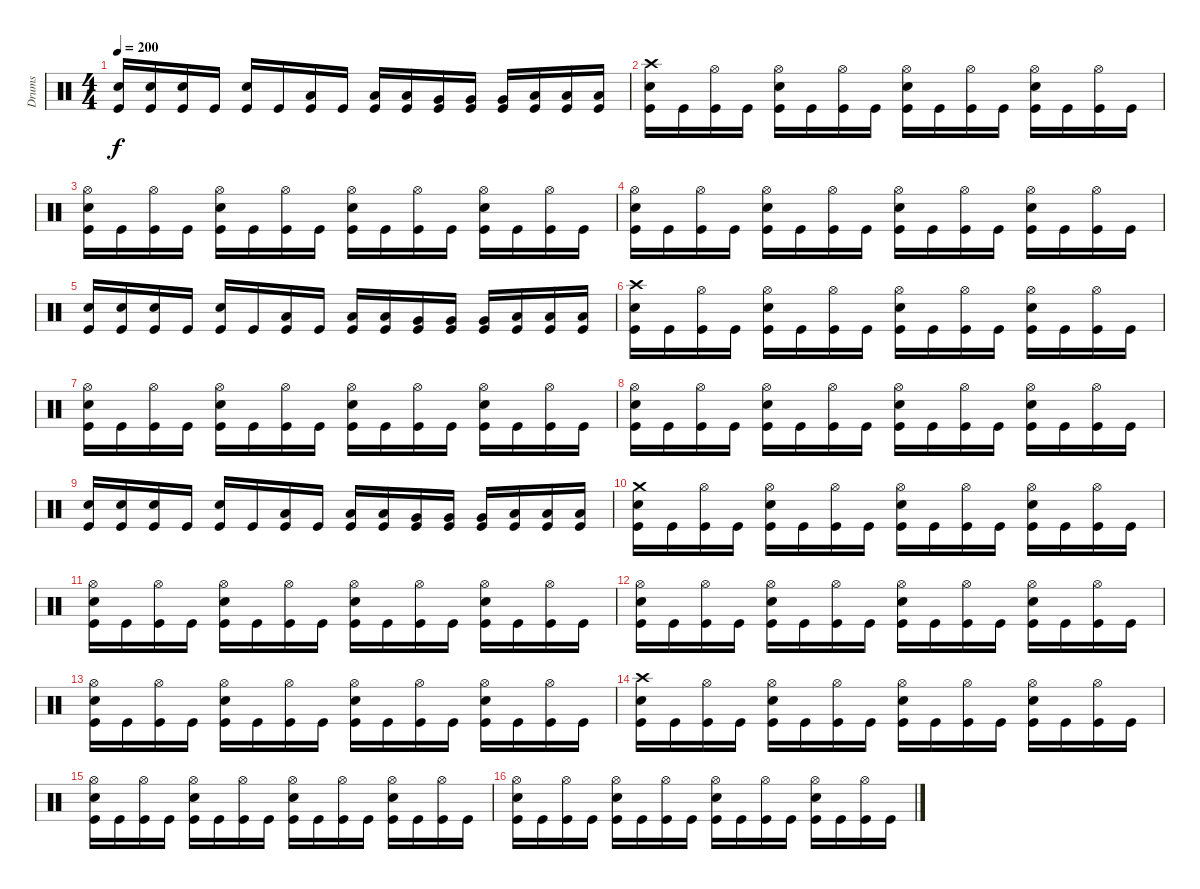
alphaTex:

\track ("Drums" "Drums") {instrument percussion}
\staff {score}
\articulation defaults
\ts (4 4)
\tempo 200
\clef neutral
\ks c
("Electric Snare (hit)" "Kick (hit)").16{dy f} ("Electric Snare (hit)" "Kick (hit)").16 ("Electric Snare (hit)" "Kick (hit)").16 "Kick (hit)".16 ("Electric Snare (hit)" "Kick (hit)").16 "Kick (hit)".16 ("Low Tom (hit)" "Kick (hit)").16 "Kick (hit)".16 ("Low Tom (hit)" "Kick (hit)").16 ("Low Tom (hit)" "Kick (hit)").16 ("Very Low Tom (hit)" "Kick (hit)").16 ("Very Low Tom (hit)" "Kick (hit)").16 ("Very Low Tom (hit)" "Kick (hit)").16 ("Low Floor Tom (hit)" "Kick (hit)").16 ("Low Floor Tom (hit)" "Kick (hit)").16 ("Low Floor Tom (hit)" "Kick (hit)").16 |
("Crash high (hit)" "Electric Snare (hit)" "Kick (hit)").16 "Kick (hit)".16 ("Hi-Hat (open)" "Kick (hit)").16 "Kick (hit)".16 ("Hi-Hat (open)" "Electric Snare (hit)" "Kick (hit)").16 "Kick (hit)".16 ("Hi-Hat (open)" "Kick (hit)").16 "Kick (hit)".16 ("Hi-Hat (open)" "Electric Snare (hit)" "Kick (hit)").16 "Kick (hit)".16 ("Hi-Hat (open)" "Kick (hit)").16 "Kick (hit)".16 ("Hi-Hat (open)" "Electric Snare (hit)" "Kick (hit)").16 "Kick (hit)".16 ("Hi-Hat (open)" "Kick (hit)").16 "Kick (hit)".16 |
("Hi-Hat (open)" "Electric Snare (hit)" "Kick (hit)").16 "Kick (hit)".16 ("Hi-Hat (open)" "Kick (hit)").16 "Kick (hit)".16 ("Hi-Hat (open)" "Electric Snare (hit)" "Kick (hit)").16 "Kick (hit)".16 ("Hi-Hat (open)" "Kick (hit)").16 "Kick (hit)".16 ("Hi-Hat (open)" "Electric Snare (hit)" "Kick (hit)").16 "Kick (hit)".16 ("Hi-Hat (open)" "Kick (hit)").16 "Kick (hit)".16 ("Hi-Hat (open)" "Electric Snare (hit)" "Kick (hit)").16 "Kick (hit)".16 ("Hi-Hat (open)" "Kick (hit)").16 "Kick (hit)".16 |
("Hi-Hat (open)" "Electric Snare (hit)" "Kick (hit)").16 "Kick (hit)".16 ("Hi-Hat (open)" "Kick (hit)").16 "Kick (hit)".16 ("Hi-Hat (open)" "Electric Snare (hit)" "Kick (hit)").16 "Kick (hit)".16 ("Hi-Hat (open)" "Kick (hit)").16 "Kick (hit)".16 ("Hi-Hat (open)" "Electric Snare (hit)" "Kick (hit)").16 "Kick (hit)".16 ("Hi-Hat (open)" "Kick (hit)").16 "Kick (hit)".16 ("Hi-Hat (open)" "Electric Snare (hit)" "Kick (hit)").16 "Kick (hit)".16 ("Hi-Hat (open)" "Kick (hit)").16 "Kick (hit)".16 |
("Electric Snare (hit)" "Kick (hit)").16 ("Electric Snare (hit)" "Kick (hit)").16 ("Electric Snare (hit)" "Kick (hit)").16 "Kick (hit)".16 ("Electric Snare (hit)" "Kick (hit)").16 "Kick (hit)".16 ("Low Tom (hit)" "Kick (hit)").16 "Kick (hit)".16 ("Low Tom (hit)" "Kick (hit)").16 ("Low Tom (hit)" "Kick (hit)").16 ("Very Low Tom (hit)" "Kick (hit)").16 ("Very Low Tom (hit)" "Kick (hit)").16 ("Very Low Tom (hit)" "Kick (hit)").16 ("Low Floor Tom (hit)" "Kick (hit)").16 ("Low Floor Tom (hit)" "Kick (hit)").16 ("Low Floor Tom (hit)" "Kick (hit)").16 |
("Crash high (hit)" "Electric Snare (hit)" "Kick (hit)").16 "Kick (hit)".16 ("Hi-Hat (open)" "Kick (hit)").16 "Kick (hit)".16 ("Hi-Hat (open)" "Electric Snare (hit)" "Kick (hit)").16 "Kick (hit)".16 ("Hi-Hat (open)" "Kick (hit)").16 "Kick (hit)".16 ("Hi-Hat (open)" "Electric Snare (hit)" "Kick (hit)").16 "Kick (hit)".16 ("Hi-Hat (open)" "Kick (hit)").16 "Kick (hit)".16 ("Hi-Hat (open)" "Electric Snare (hit)" "Kick (hit)").16 "Kick (hit)".16 ("Hi-Hat (open)" "Kick (hit)").16 "Kick (hit)".16 |
("Hi-Hat (open)" "Electric Snare (hit)" "Kick (hit)").16 "Kick (hit)".16 ("Hi-Hat (open)" "Kick (hit)").16 "Kick (hit)".16 ("Hi-Hat (open)" "Electric Snare (hit)" "Kick (hit)").16 "Kick (hit)".16 ("Hi-Hat (open)" "Kick (hit)").16 "Kick (hit)".16 ("Hi-Hat (open)" "Electric Snare (hit)" "Kick (hit)").16 "Kick (hit)".16 ("Hi-Hat (open)" "Kick (hit)").16 "Kick (hit)".16 ("Hi-Hat (open)" "Electric Snare (hit)" "Kick (hit)").16 "Kick (hit)".16 ("Hi-Hat (open)" "Kick (hit)").16 "Kick (hit)".16 |
("Hi-Hat (open)" "Electric Snare (hit)" "Kick (hit)").16 "Kick (hit)".16 ("Hi-Hat (open)" "Kick (hit)").16 "Kick (hit)".16 ("Hi-Hat (open)" "Electric Snare (hit)" "Kick (hit)").16 "Kick (hit)".16 ("Hi-Hat (open)" "Kick (hit)").16 "Kick (hit)".16 ("Hi-Hat (open)" "Electric Snare (hit)" "Kick (hit)").16 "Kick (hit)".16 ("Hi-Hat (open)" "Kick (hit)").16 "Kick (hit)".16 ("Hi-Hat (open)" "Electric Snare (hit)" "Kick (hit)").16 "Kick (hit)".16 ("Hi-Hat (open)" "Kick (hit)").16 "Kick (hit)".16 |
("Electric Snare (hit)" "Kick (hit)").16 ("Electric Snare (hit)" "Kick (hit)").16 ("Electric Snare (hit)" "Kick (hit)").16 "Kick (hit)".16 ("Electric Snare (hit)" "Kick (hit)").16 "Kick (hit)".16 ("Low Tom (hit)" "Kick (hit)").16 "Kick (hit)".16 ("Low Tom (hit)" "Kick (hit)").16 ("Low Tom (hit)" "Kick (hit)").16 ("Very Low Tom (hit)" "Kick (hit)").16 ("Very Low Tom (hit)" "Kick (hit)").16 ("Very Low Tom (hit)" "Kick (hit)").16 ("Low Floor Tom (hit)" "Kick (hit)").16 ("Low Floor Tom (hit)" "Kick (hit)").16 ("Low Floor Tom (hit)" "Kick (hit)").16 |
("Crash medium (hit)" "Electric Snare (hit)" "Kick (hit)").16 "Kick (hit)".16 ("Hi-Hat (open)" "Kick (hit)").16 "Kick (hit)".16 ("Hi-Hat (open)" "Electric Snare (hit)" "Kick (hit)").16 "Kick (hit)".16 ("Hi-Hat (open)" "Kick (hit)").16 "Kick (hit)".16 ("Hi-Hat (open)" "Electric Snare (hit)" "Kick (hit)").16 "Kick (hit)".16 ("Hi-Hat (open)" "Kick (hit)").16 "Kick (hit)".16 ("Hi-Hat (open)" "Electric Snare (hit)" "Kick (hit)").16 "Kick (hit)".16 ("Hi-Hat (open)" "Kick (hit)").16 "Kick (hit)".16 |
("Hi-Hat (open)" "Electric Snare (hit)" "Kick (hit)").16 "Kick (hit)".16 ("Hi-Hat (open)" "Kick (hit)").16 "Kick (hit)".16 ("Hi-Hat (open)" "Electric Snare (hit)" "Kick (hit)").16 "Kick (hit)".16 ("Hi-Hat (open)" "Kick (hit)").16 "Kick (hit)".16 ("Hi-Hat (open)" "Electric Snare (hit)" "Kick (hit)").16 "Kick (hit)".16 ("Hi-Hat (open)" "Kick (hit)").16 "Kick (hit)".16 ("Hi-Hat (open)" "Electric Snare (hit)" "Kick (hit)").16 "Kick (hit)".16 ("Hi-Hat (open)" "Kick (hit)").16 "Kick (hit)".16 |
("Hi-Hat (open)" "Electric Snare (hit)" "Kick (hit)").16 "Kick (hit)".16 ("Hi-Hat (open)" "Kick (hit)").16 "Kick (hit)".16 ("Hi-Hat (open)" "Electric Snare (hit)" "Kick (hit)").16 "Kick (hit)".16 ("Hi-Hat (open)" "Kick (hit)").16 "Kick (hit)".16 ("Hi-Hat (open)" "Electric Snare (hit)" "Kick (hit)").16 "Kick (hit)".16 ("Hi-Hat (open)" "Kick (hit)").16 "Kick (hit)".16 ("Hi-Hat (open)" "Electric Snare (hit)" "Kick (hit)").16 "Kick (hit)".16 ("Hi-Hat (open)" "Kick (hit)").16 "Kick (hit)".16 |
("Hi-Hat (open)" "Electric Snare (hit)" "Kick (hit)").16 "Kick (hit)".16 ("Hi-Hat (open)" "Kick (hit)").16 "Kick (hit)".16 ("Hi-Hat (open)" "Electric Snare (hit)" "Kick (hit)").16 "Kick (hit)".16 ("Hi-Hat (open)" "Kick (hit)").16 "Kick (hit)".16 ("Hi-Hat (open)" "Electric Snare (hit)" "Kick (hit)").16 "Kick (hit)".16 ("Hi-Hat (open)" "Kick (hit)").16 "Kick (hit)".16 ("Hi-Hat (open)" "Electric Snare (hit)" "Kick (hit)").16 "Kick (hit)".16 ("Hi-Hat (open)" "Kick (hit)").16 "Kick (hit)".16 |
("Crash high (hit)" "Electric Snare (hit)" "Kick (hit)").16 "Kick (hit)".16 ("Hi-Hat (open)" "Kick (hit)").16 "Kick (hit)".16 ("Hi-Hat (open)" "Electric Snare (hit)" "Kick (hit)").16 "Kick (hit)".16 ("Hi-Hat (open)" "Kick (hit)").16 "Kick (hit)".16 ("Hi-Hat (open)" "Electric Snare (hit)" "Kick (hit)").16 "Kick (hit)".16 ("Hi-Hat (open)" "Kick (hit)").16 "Kick (hit)".16 ("Hi-Hat (open)" "Electric Snare (hit)" "Kick (hit)").16 "Kick (hit)".16 ("Hi-Hat (open)" "Kick (hit)").16 "Kick (hit)".16 |
("Hi-Hat (open)" "Electric Snare (hit)" "Kick (hit)").16 "Kick (hit)".16 ("Hi-Hat (open)" "Kick (hit)").16 "Kick (hit)".16 ("Hi-Hat (open)" "Electric Snare (hit)" "Kick (hit)").16 "Kick (hit)".16 ("Hi-Hat (open)" "Kick (hit)").16 "Kick (hit)".16 ("Hi-Hat (open)" "Electric Snare (hit)" "Kick (hit)").16 "Kick (hit)".16 ("Hi-Hat (open)" "Kick (hit)").16 "Kick (hit)".16 ("Hi-Hat (open)" "Electric Snare (hit)" "Kick (hit)").16 "Kick (hit)".16 ("Hi-Hat (open)" "Kick (hit)").16 "Kick (hit)".16 |
("Hi-Hat (open)" "Electric Snare (hit)" "Kick (hit)").16 "Kick (hit)".16 ("Hi-Hat (open)" "Kick (hit)").16 "Kick (hit)".16 ("Hi-Hat (open)" "Electric Snare (hit)" "Kick (hit)").16 "Kick (hit)".16 ("Hi-Hat (open)" "Kick (hit)").16 "Kick (hit)".16 ("Hi-Hat (open)" "Electric Snare (hit)" "Kick (hit)").16 "Kick (hit)".16 ("Hi-Hat (open)" "Kick (hit)").16 "Kick (hit)".16 ("Hi-Hat (open)" "Electric Snare (hit)" "Kick (hit)").16 "Kick (hit)".16 ("Hi-Hat (open)" "Kick (hit)").16 "Kick (hit)".16
